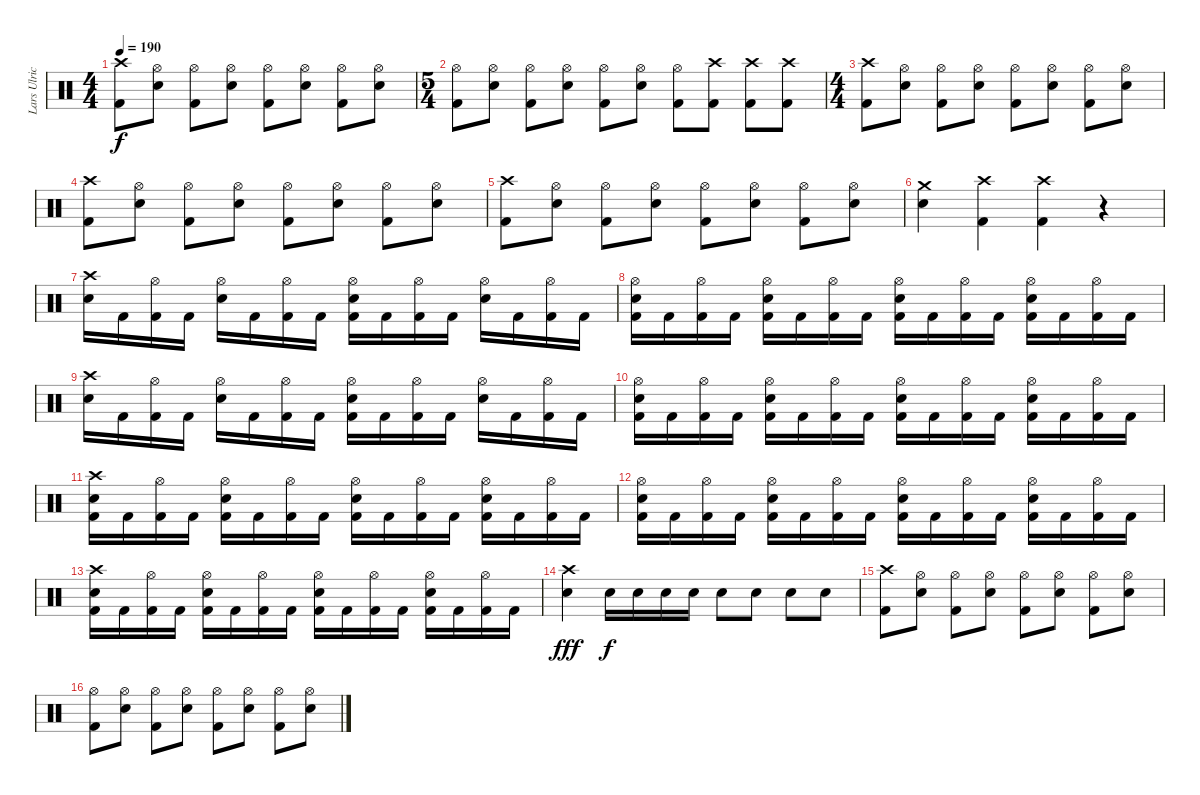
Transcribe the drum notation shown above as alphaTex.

\track ("Lars Ulrich" "Lars Ulric") {instrument percussion}
\staff {score}
\articulation defaults
\ts (4 4)
\tempo 190
\clef neutral
\ks c
("Crash high (hit)" "Kick (hit) 2").8{dy f} ("Hi-Hat (open)" "Snare (hit) 2").8 ("Hi-Hat (open)" "Kick (hit) 2").8 ("Hi-Hat (open)" "Snare (hit) 2").8 ("Hi-Hat (open)" "Kick (hit) 2").8 ("Hi-Hat (open)" "Snare (hit) 2").8 ("Hi-Hat (open)" "Kick (hit) 2").8 ("Hi-Hat (open)" "Snare (hit) 2").8 |
\ts (5 4)
("Hi-Hat (open)" "Kick (hit) 2").8 ("Hi-Hat (open)" "Snare (hit) 2").8 ("Hi-Hat (open)" "Kick (hit) 2").8 ("Hi-Hat (open)" "Snare (hit) 2").8 ("Hi-Hat (open)" "Kick (hit) 2").8 ("Hi-Hat (open)" "Snare (hit) 2").8 ("Hi-Hat (open)" "Kick (hit) 2").8 ("Crash high (hit)" "Kick (hit) 2").8 ("Crash high (hit)" "Kick (hit) 2").8 ("Crash high (hit)" "Kick (hit) 2").8 |
\ts (4 4)
("Crash high (hit)" "Kick (hit) 2").8 ("Hi-Hat (open)" "Snare (hit) 2").8 ("Hi-Hat (open)" "Kick (hit) 2").8 ("Hi-Hat (open)" "Snare (hit) 2").8 ("Hi-Hat (open)" "Kick (hit) 2").8 ("Hi-Hat (open)" "Snare (hit) 2").8 ("Hi-Hat (open)" "Kick (hit) 2").8 ("Hi-Hat (open)" "Snare (hit) 2").8 |
("Crash high (hit)" "Kick (hit) 2").8 ("Hi-Hat (open)" "Snare (hit) 2").8 ("Hi-Hat (open)" "Kick (hit) 2").8 ("Hi-Hat (open)" "Snare (hit) 2").8 ("Hi-Hat (open)" "Kick (hit) 2").8 ("Hi-Hat (open)" "Snare (hit) 2").8 ("Hi-Hat (open)" "Kick (hit) 2").8 ("Hi-Hat (open)" "Snare (hit) 2").8 |
("Crash high (hit)" "Kick (hit) 2").8 ("Hi-Hat (open)" "Snare (hit) 2").8 ("Hi-Hat (open)" "Kick (hit) 2").8 ("Hi-Hat (open)" "Snare (hit) 2").8 ("Hi-Hat (open)" "Kick (hit) 2").8 ("Hi-Hat (open)" "Snare (hit) 2").8 ("Hi-Hat (open)" "Kick (hit) 2").8 ("Hi-Hat (open)" "Snare (hit) 2").8 |
("Crash medium (hit)" "Snare (hit) 2").4 ("Crash high (hit)" "Kick (hit) 2").4 ("Crash high (hit)" "Kick (hit) 2").4 r.4 |
("Crash high (hit)" "Snare (hit) 2").16 "Kick (hit) 2".16 ("Hi-Hat (open)" "Kick (hit) 2").16 "Kick (hit) 2".16 ("Hi-Hat (open)" "Snare (hit) 2").16 "Kick (hit) 2".16 ("Hi-Hat (open)" "Kick (hit) 2").16 "Kick (hit) 2".16 ("Hi-Hat (open)" "Snare (hit) 2" "Kick (hit) 2").16 "Kick (hit) 2".16 ("Hi-Hat (open)" "Kick (hit) 2").16 "Kick (hit) 2".16 ("Hi-Hat (open)" "Snare (hit) 2").16 "Kick (hit) 2".16 ("Hi-Hat (open)" "Kick (hit) 2").16 "Kick (hit) 2".16 |
("Hi-Hat (open)" "Snare (hit) 2" "Kick (hit) 2").16 "Kick (hit) 2".16 ("Hi-Hat (open)" "Kick (hit) 2").16 "Kick (hit) 2".16 ("Hi-Hat (open)" "Snare (hit) 2" "Kick (hit) 2").16 "Kick (hit) 2".16 ("Hi-Hat (open)" "Kick (hit) 2").16 "Kick (hit) 2".16 ("Hi-Hat (open)" "Snare (hit) 2" "Kick (hit) 2").16 "Kick (hit) 2".16 ("Hi-Hat (open)" "Kick (hit) 2").16 "Kick (hit) 2".16 ("Hi-Hat (open)" "Snare (hit) 2" "Kick (hit) 2").16 "Kick (hit) 2".16 ("Hi-Hat (open)" "Kick (hit) 2").16 "Kick (hit) 2".16 |
("Crash high (hit)" "Snare (hit) 2").16 "Kick (hit) 2".16 ("Hi-Hat (open)" "Kick (hit) 2").16 "Kick (hit) 2".16 ("Hi-Hat (open)" "Snare (hit) 2").16 "Kick (hit) 2".16 ("Hi-Hat (open)" "Kick (hit) 2").16 "Kick (hit) 2".16 ("Hi-Hat (open)" "Snare (hit) 2" "Kick (hit) 2").16 "Kick (hit) 2".16 ("Hi-Hat (open)" "Kick (hit) 2").16 "Kick (hit) 2".16 ("Hi-Hat (open)" "Snare (hit) 2").16 "Kick (hit) 2".16 ("Hi-Hat (open)" "Kick (hit) 2").16 "Kick (hit) 2".16 |
("Hi-Hat (open)" "Snare (hit) 2" "Kick (hit) 2").16 "Kick (hit) 2".16 ("Hi-Hat (open)" "Kick (hit) 2").16 "Kick (hit) 2".16 ("Hi-Hat (open)" "Snare (hit) 2" "Kick (hit) 2").16 "Kick (hit) 2".16 ("Hi-Hat (open)" "Kick (hit) 2").16 "Kick (hit) 2".16 ("Hi-Hat (open)" "Snare (hit) 2" "Kick (hit) 2").16 "Kick (hit) 2".16 ("Hi-Hat (open)" "Kick (hit) 2").16 "Kick (hit) 2".16 ("Hi-Hat (open)" "Snare (hit) 2" "Kick (hit) 2").16 "Kick (hit) 2".16 ("Hi-Hat (open)" "Kick (hit) 2").16 "Kick (hit) 2".16 |
("Crash high (hit)" "Snare (hit) 2" "Kick (hit) 2").16 "Kick (hit) 2".16 ("Hi-Hat (open)" "Kick (hit) 2").16 "Kick (hit) 2".16 ("Hi-Hat (open)" "Snare (hit) 2" "Kick (hit) 2").16 "Kick (hit) 2".16 ("Hi-Hat (open)" "Kick (hit) 2").16 "Kick (hit) 2".16 ("Hi-Hat (open)" "Snare (hit) 2" "Kick (hit) 2").16 "Kick (hit) 2".16 ("Hi-Hat (open)" "Kick (hit) 2").16 "Kick (hit) 2".16 ("Hi-Hat (open)" "Snare (hit) 2" "Kick (hit) 2").16 "Kick (hit) 2".16 ("Hi-Hat (open)" "Kick (hit) 2").16 "Kick (hit) 2".16 |
("Hi-Hat (open)" "Snare (hit) 2" "Kick (hit) 2").16 "Kick (hit) 2".16 ("Hi-Hat (open)" "Kick (hit) 2").16 "Kick (hit) 2".16 ("Hi-Hat (open)" "Snare (hit) 2" "Kick (hit) 2").16 "Kick (hit) 2".16 ("Hi-Hat (open)" "Kick (hit) 2").16 "Kick (hit) 2".16 ("Hi-Hat (open)" "Snare (hit) 2" "Kick (hit) 2").16 "Kick (hit) 2".16 ("Hi-Hat (open)" "Kick (hit) 2").16 "Kick (hit) 2".16 ("Hi-Hat (open)" "Snare (hit) 2" "Kick (hit) 2").16 "Kick (hit) 2".16 ("Hi-Hat (open)" "Kick (hit) 2").16 "Kick (hit) 2".16 |
("Crash high (hit)" "Snare (hit) 2" "Kick (hit) 2").16 "Kick (hit) 2".16 ("Hi-Hat (open)" "Kick (hit) 2").16 "Kick (hit) 2".16 ("Hi-Hat (open)" "Snare (hit) 2" "Kick (hit) 2").16 "Kick (hit) 2".16 ("Hi-Hat (open)" "Kick (hit) 2").16 "Kick (hit) 2".16 ("Hi-Hat (open)" "Snare (hit) 2" "Kick (hit) 2").16 "Kick (hit) 2".16 ("Hi-Hat (open)" "Kick (hit) 2").16 "Kick (hit) 2".16 ("Hi-Hat (open)" "Snare (hit) 2" "Kick (hit) 2").16 "Kick (hit) 2".16 ("Hi-Hat (open)" "Kick (hit) 2").16 "Kick (hit) 2".16 |
("Crash high (hit)" "Snare (hit) 2").4{dy fff} "Snare (hit) 2".16{dy f} "Snare (hit) 2".16 "Snare (hit) 2".16 "Snare (hit) 2".16 "Snare (hit) 2".8 "Snare (hit) 2".8 "Snare (hit) 2".8 "Snare (hit) 2".8 |
("Crash high (hit)" "Kick (hit) 2").8 ("Hi-Hat (open)" "Snare (hit) 2").8 ("Hi-Hat (open)" "Kick (hit) 2").8 ("Hi-Hat (open)" "Snare (hit) 2").8 ("Hi-Hat (open)" "Kick (hit) 2").8 ("Hi-Hat (open)" "Snare (hit) 2").8 ("Hi-Hat (open)" "Kick (hit) 2").8 ("Hi-Hat (open)" "Snare (hit) 2").8 |
("Hi-Hat (open)" "Kick (hit) 2").8 ("Hi-Hat (open)" "Snare (hit) 2").8 ("Hi-Hat (open)" "Kick (hit) 2").8 ("Hi-Hat (open)" "Snare (hit) 2").8 ("Hi-Hat (open)" "Kick (hit) 2").8 ("Hi-Hat (open)" "Snare (hit) 2").8 ("Hi-Hat (open)" "Kick (hit) 2").8 ("Hi-Hat (open)" "Snare (hit) 2").8
